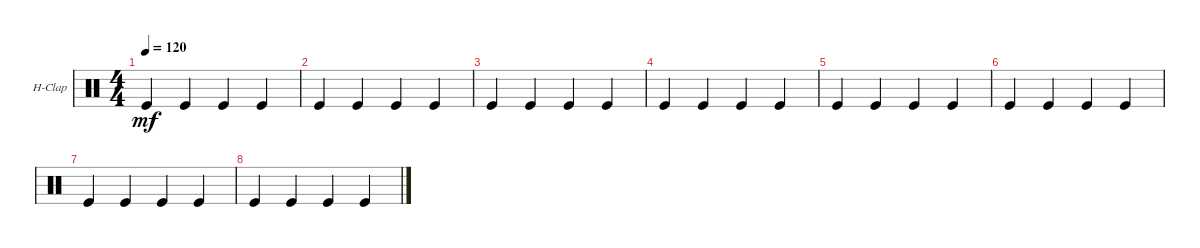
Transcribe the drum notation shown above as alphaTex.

\bracketExtendMode groupsimilarinstruments
\firstSystemTrackNameOrientation horizontal
\otherSystemsTrackNameOrientation horizontal
\track ("Hand Clap" "H-Clap") {instrument percussion}
\staff {score}
\articulation defaults
\ts (4 4)
\tempo 120
\clef neutral
\ks c "Kick (hit)".4{dy mf} "Kick (hit)".4 "Kick (hit)".4 "Kick (hit)".4
|
"Kick (hit)".4 "Kick (hit)".4 "Kick (hit)".4 "Kick (hit)".4 |
"Kick (hit)".4 "Kick (hit)".4 "Kick (hit)".4 "Kick (hit)".4 |
"Kick (hit)".4 "Kick (hit)".4 "Kick (hit)".4 "Kick (hit)".4 |
"Kick (hit)".4 "Kick (hit)".4 "Kick (hit)".4 "Kick (hit)".4 |
"Kick (hit)".4 "Kick (hit)".4 "Kick (hit)".4 "Kick (hit)".4 |
"Kick (hit)".4 "Kick (hit)".4 "Kick (hit)".4 "Kick (hit)".4 |
"Kick (hit)".4 "Kick (hit)".4 "Kick (hit)".4 "Kick (hit)".4
